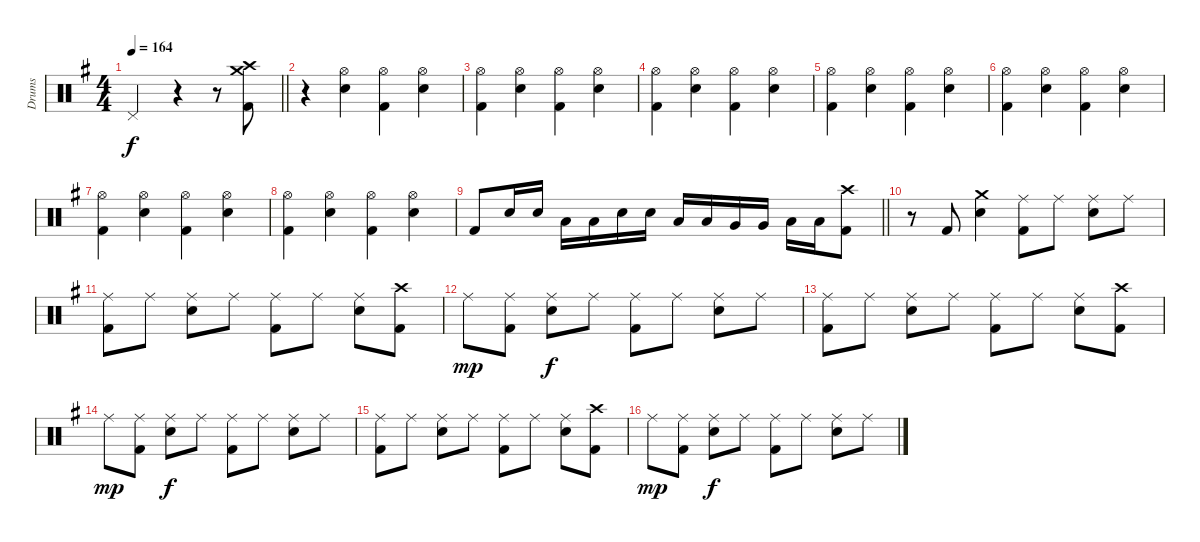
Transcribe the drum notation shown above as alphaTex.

\track ("Drums" "Drums") {instrument percussion}
\staff
\articulation defaults
\ts (4 4)
\tempo 164
\clef neutral
\barLineRight lightlight
\ks g "Pedal Hi-Hat (hit)".2{dy f}
r.4 r.8 ("Crash high (hit)" "Crash medium (hit)" "Kick (hit) 2").8 |
r.4 ("Hi-Hat (open)" "Snare (hit) 2").4 ("Hi-Hat (open)" "Kick (hit) 2").4 ("Hi-Hat (open)" "Snare (hit) 2").4 |
("Hi-Hat (open)" "Kick (hit) 2").4 ("Hi-Hat (open)" "Snare (hit) 2").4 ("Hi-Hat (open)" "Kick (hit) 2").4 ("Hi-Hat (open)" "Snare (hit) 2").4 |
("Hi-Hat (open)" "Kick (hit) 2").4 ("Hi-Hat (open)" "Snare (hit) 2").4 ("Hi-Hat (open)" "Kick (hit) 2").4 ("Hi-Hat (open)" "Snare (hit) 2").4 |
("Hi-Hat (open)" "Kick (hit) 2").4 ("Hi-Hat (open)" "Snare (hit) 2").4 ("Hi-Hat (open)" "Kick (hit) 2").4 ("Hi-Hat (open)" "Snare (hit) 2").4 |
("Hi-Hat (open)" "Kick (hit) 2").4 ("Hi-Hat (open)" "Snare (hit) 2").4 ("Hi-Hat (open)" "Kick (hit) 2").4 ("Hi-Hat (open)" "Snare (hit) 2").4 |
("Hi-Hat (open)" "Kick (hit) 2").4 ("Hi-Hat (open)" "Snare (hit) 2").4 ("Hi-Hat (open)" "Kick (hit) 2").4 ("Hi-Hat (open)" "Snare (hit) 2").4 |
("Hi-Hat (open)" "Kick (hit) 2").4 ("Hi-Hat (open)" "Snare (hit) 2").4 ("Hi-Hat (open)" "Kick (hit) 2").4 ("Hi-Hat (open)" "Snare (hit) 2").4 |
\barLineRight lightlight "Kick (hit) 2".8 "Snare (hit) 2".16 "Snare (hit) 2".16 "Low Tom (hit)".16 "Low Tom (hit)".16 "Snare (hit) 2".16 "Snare (hit) 2".16 "Low Tom (hit)".16 "Low Tom (hit)".16 "Very Low Tom (hit)".16 "Very Low Tom (hit)".16 "Low Floor Tom (hit)".16 "Low Floor Tom (hit)".16
("Crash high (hit)" "Kick (hit) 2").8 |
r.8 "Kick (hit) 2".8 ("Crash medium (hit)" "Snare (hit) 2").4 ("Ride (middle)" "Kick (hit) 2").8 "Ride (middle)".8 ("Ride (middle)" "Snare (hit) 2").8 "Ride (middle)".8 |
("Ride (middle)" "Kick (hit) 2").8 "Ride (middle)".8 ("Ride (middle)" "Snare (hit) 2").8 "Ride (middle)".8 ("Ride (middle)" "Kick (hit) 2").8 "Ride (middle)".8 ("Ride (middle)" "Snare (hit) 2").8 ("Crash high (hit)" "Kick (hit) 2").8 |
"Ride (middle)".8{dy mp} ("Ride (middle)" "Kick (hit) 2").8 ("Ride (middle)" "Snare (hit) 2").8{dy f} "Ride (middle)".8 ("Ride (middle)" "Kick (hit) 2").8 "Ride (middle)".8 ("Ride (middle)" "Snare (hit) 2").8 "Ride (middle)".8 |
("Ride (middle)" "Kick (hit) 2").8 "Ride (middle)".8 ("Ride (middle)" "Snare (hit) 2").8 "Ride (middle)".8 ("Ride (middle)" "Kick (hit) 2").8 "Ride (middle)".8 ("Ride (middle)" "Snare (hit) 2").8 ("Crash high (hit)" "Kick (hit) 2").8 |
"Ride (middle)".8{dy mp} ("Ride (middle)" "Kick (hit) 2").8 ("Ride (middle)" "Snare (hit) 2").8{dy f} "Ride (middle)".8 ("Ride (middle)" "Kick (hit) 2").8 "Ride (middle)".8 ("Ride (middle)" "Snare (hit) 2").8 "Ride (middle)".8 |
("Ride (middle)" "Kick (hit) 2").8 "Ride (middle)".8 ("Ride (middle)" "Snare (hit) 2").8 "Ride (middle)".8 ("Ride (middle)" "Kick (hit) 2").8 "Ride (middle)".8 ("Ride (middle)" "Snare (hit) 2").8 ("Crash high (hit)" "Kick (hit) 2").8 |
"Ride (middle)".8{dy mp} ("Ride (middle)" "Kick (hit) 2").8 ("Ride (middle)" "Snare (hit) 2").8{dy f} "Ride (middle)".8 ("Ride (middle)" "Kick (hit) 2").8 "Ride (middle)".8 ("Ride (middle)" "Snare (hit) 2").8 "Ride (middle)".8
